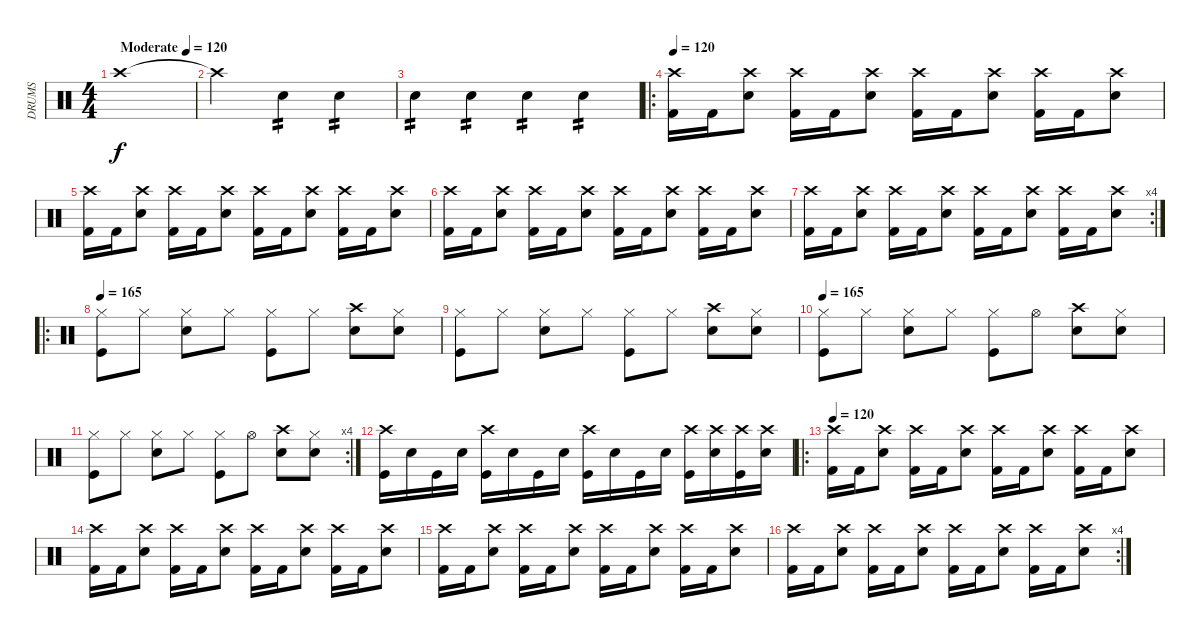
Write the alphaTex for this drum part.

\track ("DRUMS" "DRUMS") {instrument percussion}
\staff {score}
\articulation defaults
\ts (4 4)
\tempo (120 "Moderate")
\clef neutral
\ks c "Crash high (hit)".1{dy f}
|
"Crash high (hit)"{t}.2 "Snare (hit) 2".4{tp 2} "Snare (hit) 2".4{tp 2} |
"Snare (hit) 2".4{tp 2} "Snare (hit) 2".4{tp 2} "Snare (hit) 2".4{tp 2} "Snare (hit) 2".4{tp 2} |
\ro
\tempo 120
("Crash high (hit)" "Kick (hit) 2").16 "Kick (hit) 2".16 ("Crash high (hit)" "Electric Snare (hit)").8 ("Crash high (hit)" "Kick (hit) 2").16 "Kick (hit) 2".16 ("Crash high (hit)" "Electric Snare (hit)").8 ("Crash high (hit)" "Kick (hit) 2").16 "Kick (hit) 2".16 ("Crash high (hit)" "Electric Snare (hit)").8 ("Crash high (hit)" "Kick (hit) 2").16 "Kick (hit) 2".16 ("Crash high (hit)" "Electric Snare (hit)").8 |
("Crash high (hit)" "Kick (hit) 2").16 "Kick (hit) 2".16 ("Crash high (hit)" "Electric Snare (hit)").8 ("Crash high (hit)" "Kick (hit) 2").16 "Kick (hit) 2".16 ("Crash high (hit)" "Electric Snare (hit)").8 ("Crash high (hit)" "Kick (hit) 2").16 "Kick (hit) 2".16 ("Crash high (hit)" "Electric Snare (hit)").8 ("Crash high (hit)" "Kick (hit) 2").16 "Kick (hit) 2".16 ("Crash high (hit)" "Electric Snare (hit)").8 |
("Crash high (hit)" "Kick (hit) 2").16 "Kick (hit) 2".16 ("Crash high (hit)" "Electric Snare (hit)").8 ("Crash high (hit)" "Kick (hit) 2").16 "Kick (hit) 2".16 ("Crash high (hit)" "Electric Snare (hit)").8 ("Crash high (hit)" "Kick (hit) 2").16 "Kick (hit) 2".16 ("Crash high (hit)" "Electric Snare (hit)").8 ("Crash high (hit)" "Kick (hit) 2").16 "Kick (hit) 2".16 ("Crash high (hit)" "Electric Snare (hit)").8 |
\rc 4
("Crash high (hit)" "Kick (hit) 2").16 "Kick (hit) 2".16 ("Crash high (hit)" "Electric Snare (hit)").8 ("Crash high (hit)" "Kick (hit) 2").16 "Kick (hit) 2".16 ("Crash high (hit)" "Electric Snare (hit)").8 ("Crash high (hit)" "Kick (hit) 2").16 "Kick (hit) 2".16 ("Crash high (hit)" "Electric Snare (hit)").8 ("Crash high (hit)" "Kick (hit) 2").16 "Kick (hit) 2".16 ("Crash high (hit)" "Electric Snare (hit)").8 |
\ro
\tempo 165
("Hi-Hat (closed)" "Kick (hit)").8 "Hi-Hat (closed)".8 ("Hi-Hat (closed)" "Snare (hit) 2").8 "Hi-Hat (closed)".8 ("Hi-Hat (closed)" "Kick (hit)").8 "Hi-Hat (closed)".8 ("Crash high (hit)" "Snare (hit) 2").8 ("Hi-Hat (closed)" "Snare (hit) 2").8 |
("Hi-Hat (closed)" "Kick (hit)").8 "Hi-Hat (closed)".8 ("Hi-Hat (closed)" "Snare (hit) 2").8 "Hi-Hat (closed)".8 ("Hi-Hat (closed)" "Kick (hit)").8 "Hi-Hat (closed)".8 ("Crash high (hit)" "Snare (hit) 2").8 ("Hi-Hat (closed)" "Snare (hit) 2").8 |
\tempo 165
("Hi-Hat (closed)" "Kick (hit)").8 "Hi-Hat (closed)".8 ("Hi-Hat (closed)" "Snare (hit) 2").8 "Hi-Hat (closed)".8 ("Hi-Hat (closed)" "Kick (hit)").8 "Hi-Hat (open)".8 ("Crash high (hit)" "Snare (hit) 2").8 ("Hi-Hat (closed)" "Snare (hit) 2").8 |
\rc 4
("Hi-Hat (closed)" "Kick (hit)").8 "Hi-Hat (closed)".8 ("Hi-Hat (closed)" "Snare (hit) 2").8 "Hi-Hat (closed)".8 ("Hi-Hat (closed)" "Kick (hit)").8 "Hi-Hat (open)".8 ("Crash high (hit)" "Snare (hit) 2").8 ("Hi-Hat (closed)" "Snare (hit) 2").8 |
("Crash high (hit)" "Kick (hit)").16 "Snare (hit) 2".16 "Kick (hit)".16 "Snare (hit) 2".16 ("Crash high (hit)" "Kick (hit)").16 "Snare (hit) 2".16 "Kick (hit)".16 "Snare (hit) 2".16 ("Crash high (hit)" "Kick (hit)").16 "Snare (hit) 2".16 "Kick (hit)".16 "Snare (hit) 2".16 ("Crash high (hit)" "Kick (hit)").16 ("Crash high (hit)" "Snare (hit) 2").16 ("Crash high (hit)" "Kick (hit)").16 ("Crash high (hit)" "Snare (hit) 2").16 |
\ro
\tempo 120
("Crash high (hit)" "Kick (hit) 2").16 "Kick (hit) 2".16 ("Crash high (hit)" "Electric Snare (hit)").8 ("Crash high (hit)" "Kick (hit) 2").16 "Kick (hit) 2".16 ("Crash high (hit)" "Electric Snare (hit)").8 ("Crash high (hit)" "Kick (hit) 2").16 "Kick (hit) 2".16 ("Crash high (hit)" "Electric Snare (hit)").8 ("Crash high (hit)" "Kick (hit) 2").16 "Kick (hit) 2".16 ("Crash high (hit)" "Electric Snare (hit)").8 |
("Crash high (hit)" "Kick (hit) 2").16 "Kick (hit) 2".16 ("Crash high (hit)" "Electric Snare (hit)").8 ("Crash high (hit)" "Kick (hit) 2").16 "Kick (hit) 2".16 ("Crash high (hit)" "Electric Snare (hit)").8 ("Crash high (hit)" "Kick (hit) 2").16 "Kick (hit) 2".16 ("Crash high (hit)" "Electric Snare (hit)").8 ("Crash high (hit)" "Kick (hit) 2").16 "Kick (hit) 2".16 ("Crash high (hit)" "Electric Snare (hit)").8 |
("Crash high (hit)" "Kick (hit) 2").16 "Kick (hit) 2".16 ("Crash high (hit)" "Electric Snare (hit)").8 ("Crash high (hit)" "Kick (hit) 2").16 "Kick (hit) 2".16 ("Crash high (hit)" "Electric Snare (hit)").8 ("Crash high (hit)" "Kick (hit) 2").16 "Kick (hit) 2".16 ("Crash high (hit)" "Electric Snare (hit)").8 ("Crash high (hit)" "Kick (hit) 2").16 "Kick (hit) 2".16 ("Crash high (hit)" "Electric Snare (hit)").8 |
\rc 4
("Crash high (hit)" "Kick (hit) 2").16 "Kick (hit) 2".16 ("Crash high (hit)" "Electric Snare (hit)").8 ("Crash high (hit)" "Kick (hit) 2").16 "Kick (hit) 2".16 ("Crash high (hit)" "Electric Snare (hit)").8 ("Crash high (hit)" "Kick (hit) 2").16 "Kick (hit) 2".16 ("Crash high (hit)" "Electric Snare (hit)").8 ("Crash high (hit)" "Kick (hit) 2").16 "Kick (hit) 2".16 ("Crash high (hit)" "Electric Snare (hit)").8
